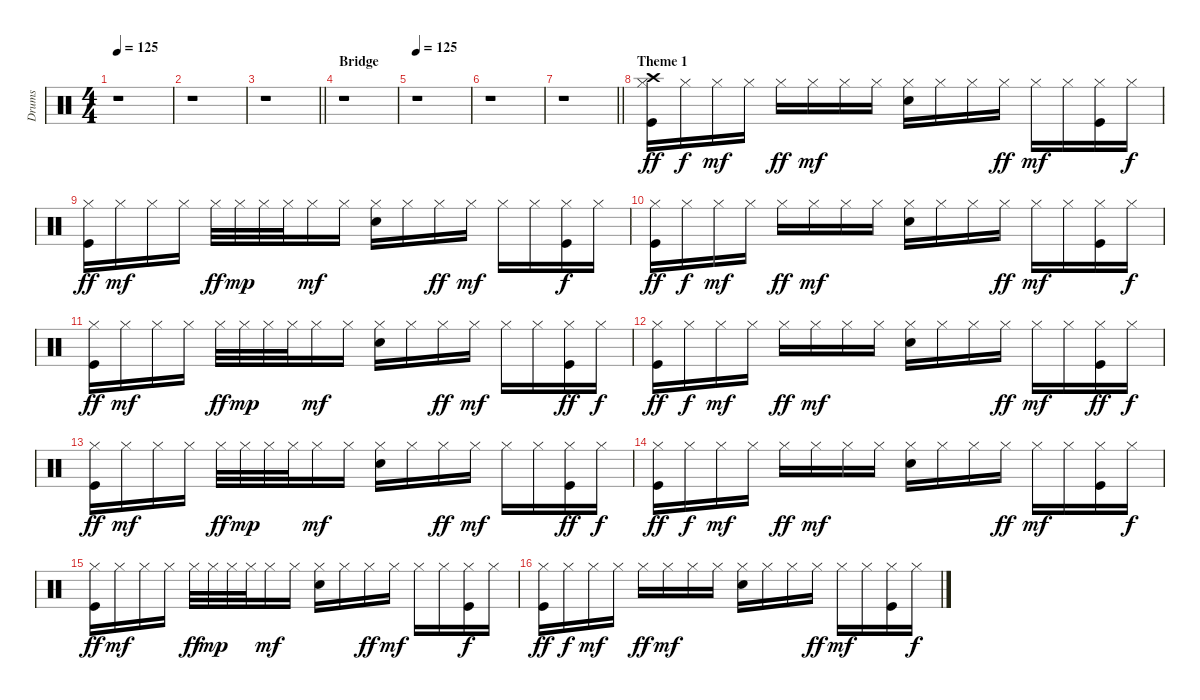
\track ("Drums" "Drums") {instrument percussion}
\staff {score}
\articulation defaults
\ts (4 4)
\tempo 125
\clef neutral
\ks c
r.1{dy ff} |
r.1 |
\barLineRight lightlight
r.1 |
\section ("" "Bridge")
r.1 |
\tempo 125
r.1 |
r.1 |
\barLineRight lightlight
r.1 |
\section ("" "Theme 1")
("Hi-Hat (closed)" "Kick (hit)" "Crash high (hit)").16 "Hi-Hat (closed)".16{dy f} "Hi-Hat (closed)".16{dy mf} "Hi-Hat (closed)".16 "Hi-Hat (closed)".16{dy ff} "Hi-Hat (closed)".16{dy mf} "Hi-Hat (closed)".16 "Hi-Hat (closed)".16 ("Hi-Hat (closed)" "Electric Snare (hit)").16 "Hi-Hat (closed)".16 "Hi-Hat (closed)".16 "Hi-Hat (closed)".16{dy ff} "Hi-Hat (closed)".16{dy mf} "Hi-Hat (closed)".16 ("Hi-Hat (closed)" "Kick (hit)").16 "Hi-Hat (closed)".16{dy f} |
("Hi-Hat (closed)" "Kick (hit)").16{dy ff} "Hi-Hat (closed)".16{dy mf} "Hi-Hat (closed)".16 "Hi-Hat (closed)".16 "Hi-Hat (closed)".32{dy ff} "Hi-Hat (closed)".32{dy mp} "Hi-Hat (closed)".32 "Hi-Hat (closed)".32 "Hi-Hat (closed)".16{dy mf} "Hi-Hat (closed)".16 ("Hi-Hat (closed)" "Electric Snare (hit)").16 "Hi-Hat (closed)".16 "Hi-Hat (closed)".16{dy ff} "Hi-Hat (closed)".16{dy mf} "Hi-Hat (closed)".16 "Hi-Hat (closed)".16 ("Hi-Hat (closed)" "Kick (hit)").16{dy f} "Hi-Hat (closed)".16 |
("Hi-Hat (closed)" "Kick (hit)").16{dy ff} "Hi-Hat (closed)".16{dy f} "Hi-Hat (closed)".16{dy mf} "Hi-Hat (closed)".16 "Hi-Hat (closed)".16{dy ff} "Hi-Hat (closed)".16{dy mf} "Hi-Hat (closed)".16 "Hi-Hat (closed)".16 ("Hi-Hat (closed)" "Electric Snare (hit)").16 "Hi-Hat (closed)".16 "Hi-Hat (closed)".16 "Hi-Hat (closed)".16{dy ff} "Hi-Hat (closed)".16{dy mf} "Hi-Hat (closed)".16 ("Hi-Hat (closed)" "Kick (hit)").16 "Hi-Hat (closed)".16{dy f} |
("Hi-Hat (closed)" "Kick (hit)").16{dy ff} "Hi-Hat (closed)".16{dy mf} "Hi-Hat (closed)".16 "Hi-Hat (closed)".16 "Hi-Hat (closed)".32{dy ff} "Hi-Hat (closed)".32{dy mp} "Hi-Hat (closed)".32 "Hi-Hat (closed)".32 "Hi-Hat (closed)".16{dy mf} "Hi-Hat (closed)".16 ("Hi-Hat (closed)" "Electric Snare (hit)").16 "Hi-Hat (closed)".16 "Hi-Hat (closed)".16{dy ff} "Hi-Hat (closed)".16{dy mf} "Hi-Hat (closed)".16 "Hi-Hat (closed)".16 ("Hi-Hat (closed)" "Kick (hit)").16{dy ff} "Hi-Hat (closed)".16{dy f} |
("Hi-Hat (closed)" "Kick (hit)").16{dy ff} "Hi-Hat (closed)".16{dy f} "Hi-Hat (closed)".16{dy mf} "Hi-Hat (closed)".16 "Hi-Hat (closed)".16{dy ff} "Hi-Hat (closed)".16{dy mf} "Hi-Hat (closed)".16 "Hi-Hat (closed)".16 ("Hi-Hat (closed)" "Electric Snare (hit)").16 "Hi-Hat (closed)".16 "Hi-Hat (closed)".16 "Hi-Hat (closed)".16{dy ff} "Hi-Hat (closed)".16{dy mf} "Hi-Hat (closed)".16 ("Hi-Hat (closed)" "Kick (hit)").16{dy ff} "Hi-Hat (closed)".16{dy f} |
("Kick (hit)" "Hi-Hat (closed)").16{dy ff} "Hi-Hat (closed)".16{dy mf} "Hi-Hat (closed)".16 "Hi-Hat (closed)".16 "Hi-Hat (closed)".32{dy ff} "Hi-Hat (closed)".32{dy mp} "Hi-Hat (closed)".32 "Hi-Hat (closed)".32 "Hi-Hat (closed)".16{dy mf} "Hi-Hat (closed)".16 ("Hi-Hat (closed)" "Electric Snare (hit)").16 "Hi-Hat (closed)".16 "Hi-Hat (closed)".16{dy ff} "Hi-Hat (closed)".16{dy mf} "Hi-Hat (closed)".16 "Hi-Hat (closed)".16 ("Hi-Hat (closed)" "Kick (hit)").16{dy ff} "Hi-Hat (closed)".16{dy f} |
("Hi-Hat (closed)" "Kick (hit)").16{dy ff} "Hi-Hat (closed)".16{dy f} "Hi-Hat (closed)".16{dy mf} "Hi-Hat (closed)".16 "Hi-Hat (closed)".16{dy ff} "Hi-Hat (closed)".16{dy mf} "Hi-Hat (closed)".16 "Hi-Hat (closed)".16 ("Hi-Hat (closed)" "Electric Snare (hit)").16 "Hi-Hat (closed)".16 "Hi-Hat (closed)".16 "Hi-Hat (closed)".16{dy ff} "Hi-Hat (closed)".16{dy mf} "Hi-Hat (closed)".16 ("Hi-Hat (closed)" "Kick (hit)").16 "Hi-Hat (closed)".16{dy f} |
("Kick (hit)" "Hi-Hat (closed)").16{dy ff} "Hi-Hat (closed)".16{dy mf} "Hi-Hat (closed)".16 "Hi-Hat (closed)".16 "Hi-Hat (closed)".32{dy ff} "Hi-Hat (closed)".32{dy mp} "Hi-Hat (closed)".32 "Hi-Hat (closed)".32 "Hi-Hat (closed)".16{dy mf} "Hi-Hat (closed)".16 ("Hi-Hat (closed)" "Electric Snare (hit)").16 "Hi-Hat (closed)".16 "Hi-Hat (closed)".16{dy ff} "Hi-Hat (closed)".16{dy mf} "Hi-Hat (closed)".16 "Hi-Hat (closed)".16 ("Hi-Hat (closed)" "Kick (hit)").16{dy f} "Hi-Hat (closed)".16 |
("Hi-Hat (closed)" "Kick (hit)").16{dy ff} "Hi-Hat (closed)".16{dy f} "Hi-Hat (closed)".16{dy mf} "Hi-Hat (closed)".16 "Hi-Hat (closed)".16{dy ff} "Hi-Hat (closed)".16{dy mf} "Hi-Hat (closed)".16 "Hi-Hat (closed)".16 ("Hi-Hat (closed)" "Electric Snare (hit)").16 "Hi-Hat (closed)".16 "Hi-Hat (closed)".16 "Hi-Hat (closed)".16{dy ff} "Hi-Hat (closed)".16{dy mf} "Hi-Hat (closed)".16 ("Hi-Hat (closed)" "Kick (hit)").16 "Hi-Hat (closed)".16{dy f}
